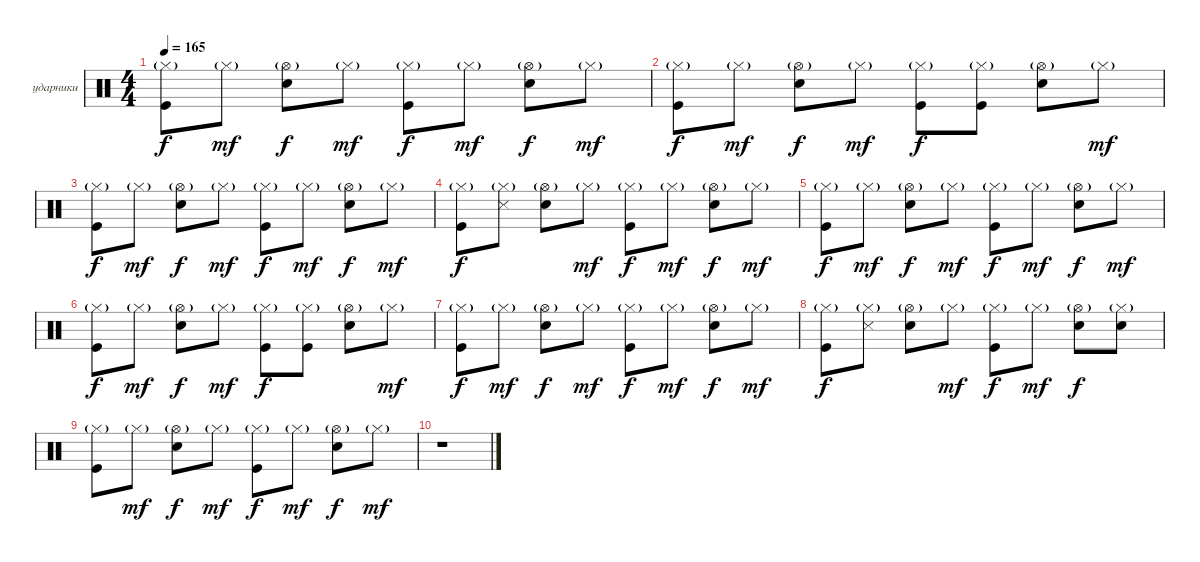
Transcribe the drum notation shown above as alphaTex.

\bracketExtendMode groupsimilarinstruments
\firstSystemTrackNameOrientation horizontal
\otherSystemsTrackNameOrientation horizontal
\track ("Георгий Гурьянов" "ударники") {instrument percussion}
\staff {score}
\articulation defaults
\ts (4 4)
\tempo 165
\clef neutral
\scale
0.333333
\ks c
("Hi-Hat (closed)"{g} "Kick (hit)").8{dy f} "Hi-Hat (closed)"{g}.8{dy mf} ("Hi-Hat (open)"{g} "Snare (hit) 2").8{dy f} "Hi-Hat (closed)"{g}.8{dy mf} ("Hi-Hat (closed)"{g} "Kick (hit)").8{dy f} "Hi-Hat (closed)"{g}.8{dy mf} ("Hi-Hat (open)"{g} "Snare (hit) 2").8{dy f} "Hi-Hat (closed)"{g}.8{dy mf} |
\scale
0.333333 ("Hi-Hat (closed)"{g} "Kick (hit)").8{dy f} "Hi-Hat (closed)"{g}.8{dy mf} ("Hi-Hat (open)"{g} "Snare (hit) 2").8{dy f} "Hi-Hat (closed)"{g}.8{dy mf} ("Hi-Hat (closed)"{g} "Kick (hit)").8{dy f} ("Hi-Hat (closed)"{g} "Kick (hit)").8 ("Hi-Hat (open)"{g} "Snare (hit) 2").8 "Hi-Hat (closed)"{g}.8{dy mf} |
\scale
0.333333 ("Hi-Hat (closed)"{g} "Kick (hit)").8{dy f} "Hi-Hat (closed)"{g}.8{dy mf} ("Hi-Hat (open)"{g} "Snare (hit) 2").8{dy f} "Hi-Hat (closed)"{g}.8{dy mf} ("Hi-Hat (closed)"{g} "Kick (hit)").8{dy f} "Hi-Hat (closed)"{g}.8{dy mf} ("Hi-Hat (open)"{g} "Snare (hit) 2").8{dy f} "Hi-Hat (closed)"{g}.8{dy mf} |
\scale
0.333333 ("Hi-Hat (closed)"{g} "Kick (hit)").8{dy f} ("Hi-Hat (closed)"{g} "Snare (side stick) 3").8 ("Hi-Hat (open)"{g} "Snare (hit) 2").8 "Hi-Hat (closed)"{g}.8{dy mf} ("Hi-Hat (closed)"{g} "Kick (hit)").8{dy f} "Hi-Hat (closed)"{g}.8{dy mf} ("Hi-Hat (open)"{g} "Snare (hit) 2").8{dy f} "Hi-Hat (closed)"{g}.8{dy mf} |
\scale
0.333333 ("Hi-Hat (closed)"{g} "Kick (hit)").8{dy f} "Hi-Hat (closed)"{g}.8{dy mf} ("Hi-Hat (open)"{g} "Snare (hit) 2").8{dy f} "Hi-Hat (closed)"{g}.8{dy mf} ("Hi-Hat (closed)"{g} "Kick (hit)").8{dy f} "Hi-Hat (closed)"{g}.8{dy mf} ("Hi-Hat (open)"{g} "Snare (hit) 2").8{dy f} "Hi-Hat (closed)"{g}.8{dy mf} |
\scale
0.333333 ("Hi-Hat (closed)"{g} "Kick (hit)").8{dy f} "Hi-Hat (closed)"{g}.8{dy mf} ("Hi-Hat (open)"{g} "Snare (hit) 2").8{dy f} "Hi-Hat (closed)"{g}.8{dy mf} ("Hi-Hat (closed)"{g} "Kick (hit)").8{dy f} ("Hi-Hat (closed)"{g} "Kick (hit)").8 ("Hi-Hat (open)"{g} "Snare (hit) 2").8 "Hi-Hat (closed)"{g}.8{dy mf} |
\scale
0.333333 ("Hi-Hat (closed)"{g} "Kick (hit)").8{dy f} "Hi-Hat (closed)"{g}.8{dy mf} ("Hi-Hat (open)"{g} "Snare (hit) 2").8{dy f} "Hi-Hat (closed)"{g}.8{dy mf} ("Hi-Hat (closed)"{g} "Kick (hit)").8{dy f} "Hi-Hat (closed)"{g}.8{dy mf} ("Hi-Hat (open)"{g} "Snare (hit) 2").8{dy f} "Hi-Hat (closed)"{g}.8{dy mf} |
\scale
0.333333 ("Hi-Hat (closed)"{g} "Kick (hit)").8{dy f} ("Hi-Hat (closed)"{g} "Snare (side stick) 3").8 ("Hi-Hat (open)"{g} "Snare (hit) 2").8 "Hi-Hat (closed)"{g}.8{dy mf} ("Hi-Hat (closed)"{g} "Kick (hit)").8{dy f} "Hi-Hat (closed)"{g}.8{dy mf} ("Hi-Hat (open)"{g} "Snare (hit) 2").8{dy f} ("Hi-Hat (closed)"{g} "Snare (hit) 2").8 |
\scale
0.333333 ("Hi-Hat (closed)"{g} "Kick (hit)").8 "Hi-Hat (closed)"{g}.8{dy mf} ("Hi-Hat (open)"{g} "Snare (hit) 2").8{dy f} "Hi-Hat (closed)"{g}.8{dy mf} ("Hi-Hat (closed)"{g} "Kick (hit)").8{dy f} "Hi-Hat (closed)"{g}.8{dy mf} ("Hi-Hat (open)"{g} "Snare (hit) 2").8{dy f} "Hi-Hat (closed)"{g}.8{dy mf} |
\scale
0.333333 r.1
